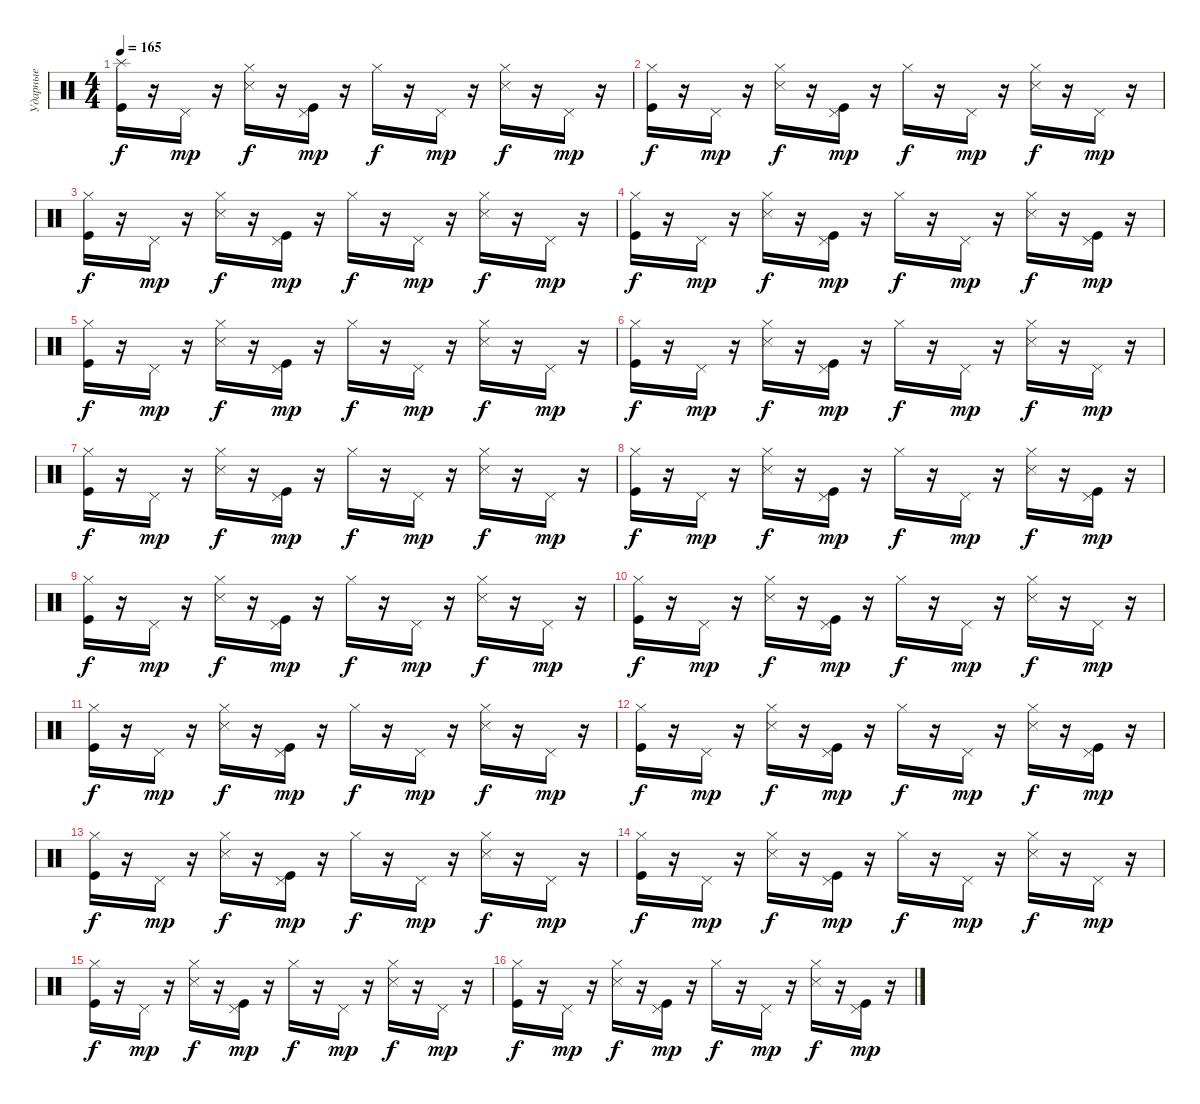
\track ("Ударные" "Ударные") {instrument percussion}
\staff {score}
\articulation defaults
\ts (4 4)
\tempo 165
\clef neutral
\ks c
("Kick (hit)" "Splash (hit)").16{dy f} r.16 "Pedal Hi-Hat (hit)".16{dy mp} r.16 ("Snare (side stick) 3" "Hi-Hat (closed)").16{dy f} r.16 ("Kick (hit)" "Pedal Hi-Hat (hit)").16{dy mp} r.16 "Hi-Hat (closed)".16{dy f} r.16 "Pedal Hi-Hat (hit)".16{dy mp} r.16 ("Snare (side stick) 3" "Hi-Hat (closed)").16{dy f} r.16 "Pedal Hi-Hat (hit)".16{dy mp} r.16 |
("Hi-Hat (closed)" "Kick (hit)").16{dy f} r.16 "Pedal Hi-Hat (hit)".16{dy mp} r.16 ("Snare (side stick) 3" "Hi-Hat (closed)").16{dy f} r.16 ("Kick (hit)" "Pedal Hi-Hat (hit)").16{dy mp} r.16 "Hi-Hat (closed)".16{dy f} r.16 "Pedal Hi-Hat (hit)".16{dy mp} r.16 ("Hi-Hat (closed)" "Snare (side stick) 3").16{dy f} r.16 "Pedal Hi-Hat (hit)".16{dy mp} r.16 |
("Hi-Hat (closed)" "Kick (hit)").16{dy f} r.16 "Pedal Hi-Hat (hit)".16{dy mp} r.16 ("Snare (side stick) 3" "Hi-Hat (closed)").16{dy f} r.16 ("Kick (hit)" "Pedal Hi-Hat (hit)").16{dy mp} r.16 "Hi-Hat (closed)".16{dy f} r.16 "Pedal Hi-Hat (hit)".16{dy mp} r.16 ("Snare (side stick) 3" "Hi-Hat (closed)").16{dy f} r.16 "Pedal Hi-Hat (hit)".16{dy mp} r.16 |
("Hi-Hat (closed)" "Kick (hit)").16{dy f} r.16 "Pedal Hi-Hat (hit)".16{dy mp} r.16 ("Snare (side stick) 3" "Hi-Hat (closed)").16{dy f} r.16 ("Pedal Hi-Hat (hit)" "Kick (hit)").16{dy mp} r.16 "Hi-Hat (closed)".16{dy f} r.16 "Pedal Hi-Hat (hit)".16{dy mp} r.16 ("Snare (side stick) 3" "Hi-Hat (closed)").16{dy f} r.16 ("Kick (hit)" "Pedal Hi-Hat (hit)").16{dy mp} r.16 |
("Kick (hit)" "Hi-Hat (closed)").16{dy f} r.16 "Pedal Hi-Hat (hit)".16{dy mp} r.16 ("Hi-Hat (closed)" "Snare (side stick) 3").16{dy f} r.16 ("Pedal Hi-Hat (hit)" "Kick (hit)").16{dy mp} r.16 "Hi-Hat (closed)".16{dy f} r.16 "Pedal Hi-Hat (hit)".16{dy mp} r.16 ("Snare (side stick) 3" "Hi-Hat (closed)").16{dy f} r.16 "Pedal Hi-Hat (hit)".16{dy mp} r.16 |
("Hi-Hat (closed)" "Kick (hit)").16{dy f} r.16 "Pedal Hi-Hat (hit)".16{dy mp} r.16 ("Hi-Hat (closed)" "Snare (side stick) 3").16{dy f} r.16 ("Kick (hit)" "Pedal Hi-Hat (hit)").16{dy mp} r.16 "Hi-Hat (closed)".16{dy f} r.16 "Pedal Hi-Hat (hit)".16{dy mp} r.16 ("Snare (side stick) 3" "Hi-Hat (closed)").16{dy f} r.16 "Pedal Hi-Hat (hit)".16{dy mp} r.16 |
("Hi-Hat (closed)" "Kick (hit)").16{dy f} r.16 "Pedal Hi-Hat (hit)".16{dy mp} r.16 ("Snare (side stick) 3" "Hi-Hat (closed)").16{dy f} r.16 ("Kick (hit)" "Pedal Hi-Hat (hit)").16{dy mp} r.16 "Hi-Hat (closed)".16{dy f} r.16 "Pedal Hi-Hat (hit)".16{dy mp} r.16 ("Hi-Hat (closed)" "Snare (side stick) 3").16{dy f} r.16 "Pedal Hi-Hat (hit)".16{dy mp} r.16 |
("Hi-Hat (closed)" "Kick (hit)").16{dy f} r.16 "Pedal Hi-Hat (hit)".16{dy mp} r.16 ("Snare (side stick) 3" "Hi-Hat (closed)").16{dy f} r.16 ("Kick (hit)" "Pedal Hi-Hat (hit)").16{dy mp} r.16 "Hi-Hat (closed)".16{dy f} r.16 "Pedal Hi-Hat (hit)".16{dy mp} r.16 ("Snare (side stick) 3" "Hi-Hat (closed)").16{dy f} r.16 ("Kick (hit)" "Pedal Hi-Hat (hit)").16{dy mp} r.16 |
("Hi-Hat (closed)" "Kick (hit)").16{dy f} r.16 "Pedal Hi-Hat (hit)".16{dy mp} r.16 ("Hi-Hat (closed)" "Snare (side stick) 3").16{dy f} r.16 ("Kick (hit)" "Pedal Hi-Hat (hit)").16{dy mp} r.16 "Hi-Hat (closed)".16{dy f} r.16 "Pedal Hi-Hat (hit)".16{dy mp} r.16 ("Hi-Hat (closed)" "Snare (side stick) 3").16{dy f} r.16 "Pedal Hi-Hat (hit)".16{dy mp} r.16 |
("Hi-Hat (closed)" "Kick (hit)").16{dy f} r.16 "Pedal Hi-Hat (hit)".16{dy mp} r.16 ("Hi-Hat (closed)" "Snare (side stick) 3").16{dy f} r.16 ("Kick (hit)" "Pedal Hi-Hat (hit)").16{dy mp} r.16 "Hi-Hat (closed)".16{dy f} r.16 "Pedal Hi-Hat (hit)".16{dy mp} r.16 ("Snare (side stick) 3" "Hi-Hat (closed)").16{dy f} r.16 "Pedal Hi-Hat (hit)".16{dy mp} r.16 |
("Hi-Hat (closed)" "Kick (hit)").16{dy f} r.16 "Pedal Hi-Hat (hit)".16{dy mp} r.16 ("Snare (side stick) 3" "Hi-Hat (closed)").16{dy f} r.16 ("Pedal Hi-Hat (hit)" "Kick (hit)").16{dy mp} r.16 "Hi-Hat (closed)".16{dy f} r.16 "Pedal Hi-Hat (hit)".16{dy mp} r.16 ("Snare (side stick) 3" "Hi-Hat (closed)").16{dy f} r.16 "Pedal Hi-Hat (hit)".16{dy mp} r.16 |
("Hi-Hat (closed)" "Kick (hit)").16{dy f} r.16 "Pedal Hi-Hat (hit)".16{dy mp} r.16 ("Hi-Hat (closed)" "Snare (side stick) 3").16{dy f} r.16 ("Pedal Hi-Hat (hit)" "Kick (hit)").16{dy mp} r.16 "Hi-Hat (closed)".16{dy f} r.16 "Pedal Hi-Hat (hit)".16{dy mp} r.16 ("Hi-Hat (closed)" "Snare (side stick) 3").16{dy f} r.16 ("Kick (hit)" "Pedal Hi-Hat (hit)").16{dy mp} r.16 |
("Hi-Hat (closed)" "Kick (hit)").16{dy f} r.16 "Pedal Hi-Hat (hit)".16{dy mp} r.16 ("Hi-Hat (closed)" "Snare (side stick) 3").16{dy f} r.16 ("Kick (hit)" "Pedal Hi-Hat (hit)").16{dy mp} r.16 "Hi-Hat (closed)".16{dy f} r.16 "Pedal Hi-Hat (hit)".16{dy mp} r.16 ("Hi-Hat (closed)" "Snare (side stick) 3").16{dy f} r.16 "Pedal Hi-Hat (hit)".16{dy mp} r.16 |
("Hi-Hat (closed)" "Kick (hit)").16{dy f} r.16 "Pedal Hi-Hat (hit)".16{dy mp} r.16 ("Snare (side stick) 3" "Hi-Hat (closed)").16{dy f} r.16 ("Pedal Hi-Hat (hit)" "Kick (hit)").16{dy mp} r.16 "Hi-Hat (closed)".16{dy f} r.16 "Pedal Hi-Hat (hit)".16{dy mp} r.16 ("Snare (side stick) 3" "Hi-Hat (closed)").16{dy f} r.16 "Pedal Hi-Hat (hit)".16{dy mp} r.16 |
("Hi-Hat (closed)" "Kick (hit)").16{dy f} r.16 "Pedal Hi-Hat (hit)".16{dy mp} r.16 ("Hi-Hat (closed)" "Snare (side stick) 3").16{dy f} r.16 ("Kick (hit)" "Pedal Hi-Hat (hit)").16{dy mp} r.16 "Hi-Hat (closed)".16{dy f} r.16 "Pedal Hi-Hat (hit)".16{dy mp} r.16 ("Snare (side stick) 3" "Hi-Hat (closed)").16{dy f} r.16 "Pedal Hi-Hat (hit)".16{dy mp} r.16 |
("Kick (hit)" "Hi-Hat (closed)").16{dy f} r.16 "Pedal Hi-Hat (hit)".16{dy mp} r.16 ("Hi-Hat (closed)" "Snare (side stick) 3").16{dy f} r.16 ("Kick (hit)" "Pedal Hi-Hat (hit)").16{dy mp} r.16 "Hi-Hat (closed)".16{dy f} r.16 "Pedal Hi-Hat (hit)".16{dy mp} r.16 ("Hi-Hat (closed)" "Snare (side stick) 3").16{dy f} r.16 ("Kick (hit)" "Pedal Hi-Hat (hit)").16{dy mp} r.16
